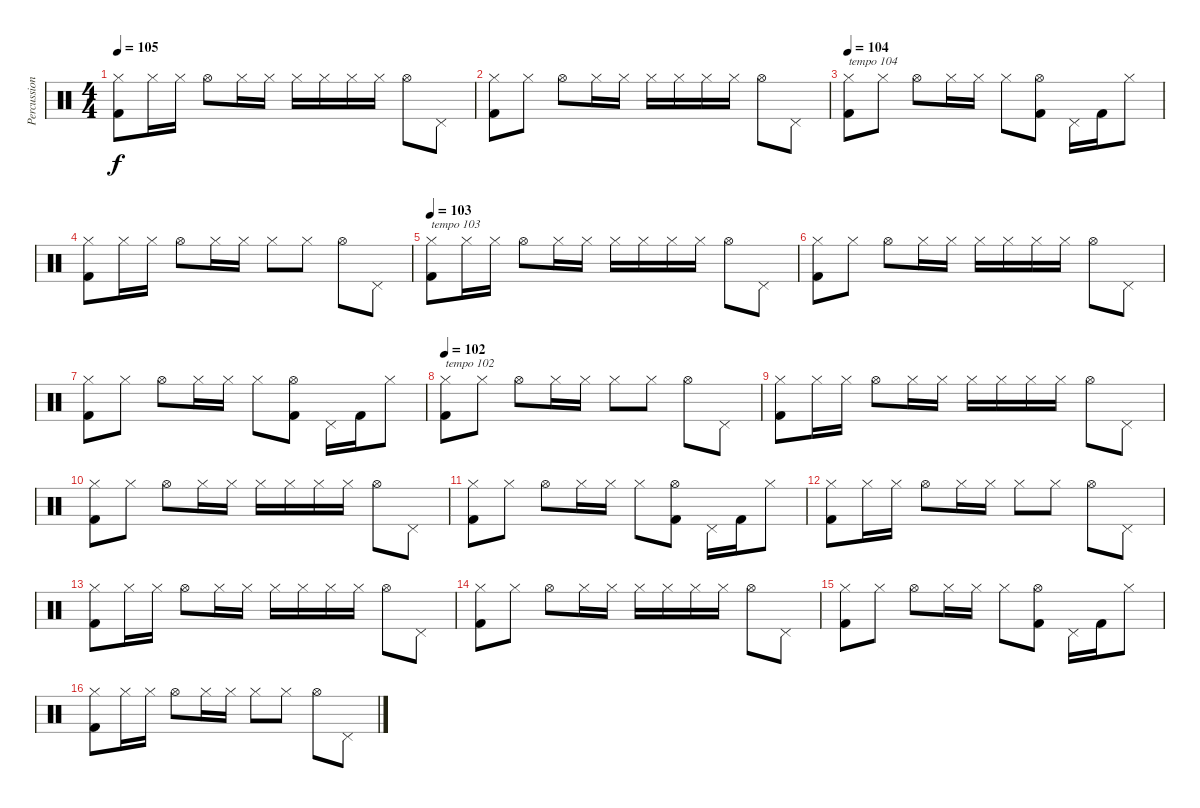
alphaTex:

\track ("Percussion" "Percussion") {instrument percussion}
\staff {score}
\articulation defaults
\ts (4 4)
\tempo 105
\clef neutral
\ks c
("Hi-Hat (closed)" "Kick (hit) 2").8{dy f} "Hi-Hat (closed)".16 "Hi-Hat (closed)".16 "Hi-Hat (open)".8 "Hi-Hat (closed)".16 "Hi-Hat (closed)".16 "Hi-Hat (closed)".16 "Hi-Hat (closed)".16 "Hi-Hat (closed)".16 "Hi-Hat (closed)".16 "Hi-Hat (open)".8 "Pedal Hi-Hat (hit)".8 |
("Hi-Hat (closed)" "Kick (hit) 2").8 "Hi-Hat (closed)".8 "Hi-Hat (open)".8 "Hi-Hat (closed)".16 "Hi-Hat (closed)".16 "Hi-Hat (closed)".16 "Hi-Hat (closed)".16 "Hi-Hat (closed)".16 "Hi-Hat (closed)".16 "Hi-Hat (open)".8 "Pedal Hi-Hat (hit)".8 |
\tempo 104
("Hi-Hat (closed)" "Kick (hit) 2").8{txt "tempo 104"} "Hi-Hat (closed)".8 "Hi-Hat (open)".8 "Hi-Hat (closed)".16 "Hi-Hat (closed)".16 "Hi-Hat (closed)".8 ("Hi-Hat (open)" "Kick (hit) 2").8 "Pedal Hi-Hat (hit)".16 "Kick (hit) 2".16 "Hi-Hat (closed)".8 |
("Hi-Hat (closed)" "Kick (hit) 2").8{volume 7} "Hi-Hat (closed)".16 "Hi-Hat (closed)".16 "Hi-Hat (open)".8 "Hi-Hat (closed)".16 "Hi-Hat (closed)".16 "Hi-Hat (closed)".8 "Hi-Hat (closed)".8 "Hi-Hat (open)".8 "Pedal Hi-Hat (hit)".8 |
\tempo 103
("Hi-Hat (closed)" "Kick (hit) 2").8{txt "tempo 103"} "Hi-Hat (closed)".16 "Hi-Hat (closed)".16 "Hi-Hat (open)".8 "Hi-Hat (closed)".16 "Hi-Hat (closed)".16 "Hi-Hat (closed)".16 "Hi-Hat (closed)".16 "Hi-Hat (closed)".16 "Hi-Hat (closed)".16 "Hi-Hat (open)".8 "Pedal Hi-Hat (hit)".8 |
("Hi-Hat (closed)" "Kick (hit) 2").8 "Hi-Hat (closed)".8 "Hi-Hat (open)".8 "Hi-Hat (closed)".16 "Hi-Hat (closed)".16 "Hi-Hat (closed)".16 "Hi-Hat (closed)".16 "Hi-Hat (closed)".16 "Hi-Hat (closed)".16 "Hi-Hat (open)".8 "Pedal Hi-Hat (hit)".8 |
("Hi-Hat (closed)" "Kick (hit) 2").8 "Hi-Hat (closed)".8 "Hi-Hat (open)".8 "Hi-Hat (closed)".16 "Hi-Hat (closed)".16 "Hi-Hat (closed)".8 ("Hi-Hat (open)" "Kick (hit) 2").8 "Pedal Hi-Hat (hit)".16 "Kick (hit) 2".16 "Hi-Hat (closed)".8 |
\tempo 102
("Hi-Hat (closed)" "Kick (hit) 2").8{txt "tempo 102" volume 7} "Hi-Hat (closed)".8 "Hi-Hat (open)".8 "Hi-Hat (closed)".16 "Hi-Hat (closed)".16 "Hi-Hat (closed)".8 "Hi-Hat (closed)".8 "Hi-Hat (open)".8 "Pedal Hi-Hat (hit)".8 |
("Hi-Hat (closed)" "Kick (hit) 2").8 "Hi-Hat (closed)".16 "Hi-Hat (closed)".16 "Hi-Hat (open)".8 "Hi-Hat (closed)".16 "Hi-Hat (closed)".16 "Hi-Hat (closed)".16 "Hi-Hat (closed)".16 "Hi-Hat (closed)".16 "Hi-Hat (closed)".16 "Hi-Hat (open)".8 "Pedal Hi-Hat (hit)".8 |
("Hi-Hat (closed)" "Kick (hit) 2").8 "Hi-Hat (closed)".8 "Hi-Hat (open)".8 "Hi-Hat (closed)".16 "Hi-Hat (closed)".16 "Hi-Hat (closed)".16 "Hi-Hat (closed)".16 "Hi-Hat (closed)".16 "Hi-Hat (closed)".16 "Hi-Hat (open)".8 "Pedal Hi-Hat (hit)".8 |
("Hi-Hat (closed)" "Kick (hit) 2").8 "Hi-Hat (closed)".8 "Hi-Hat (open)".8 "Hi-Hat (closed)".16 "Hi-Hat (closed)".16 "Hi-Hat (closed)".8 ("Hi-Hat (open)" "Kick (hit) 2").8 "Pedal Hi-Hat (hit)".16 "Kick (hit) 2".16 "Hi-Hat (closed)".8 |
("Hi-Hat (closed)" "Kick (hit) 2").8{volume 7} "Hi-Hat (closed)".16 "Hi-Hat (closed)".16 "Hi-Hat (open)".8 "Hi-Hat (closed)".16 "Hi-Hat (closed)".16 "Hi-Hat (closed)".8 "Hi-Hat (closed)".8 "Hi-Hat (open)".8 "Pedal Hi-Hat (hit)".8 |
("Hi-Hat (closed)" "Kick (hit) 2").8 "Hi-Hat (closed)".16 "Hi-Hat (closed)".16 "Hi-Hat (open)".8 "Hi-Hat (closed)".16 "Hi-Hat (closed)".16 "Hi-Hat (closed)".16 "Hi-Hat (closed)".16 "Hi-Hat (closed)".16 "Hi-Hat (closed)".16 "Hi-Hat (open)".8 "Pedal Hi-Hat (hit)".8 |
("Hi-Hat (closed)" "Kick (hit) 2").8 "Hi-Hat (closed)".8 "Hi-Hat (open)".8 "Hi-Hat (closed)".16 "Hi-Hat (closed)".16 "Hi-Hat (closed)".16 "Hi-Hat (closed)".16 "Hi-Hat (closed)".16 "Hi-Hat (closed)".16 "Hi-Hat (open)".8 "Pedal Hi-Hat (hit)".8 |
("Hi-Hat (closed)" "Kick (hit) 2").8 "Hi-Hat (closed)".8 "Hi-Hat (open)".8 "Hi-Hat (closed)".16 "Hi-Hat (closed)".16 "Hi-Hat (closed)".8 ("Hi-Hat (open)" "Kick (hit) 2").8 "Pedal Hi-Hat (hit)".16 "Kick (hit) 2".16 "Hi-Hat (closed)".8 |
("Hi-Hat (closed)" "Kick (hit) 2").8{volume 7} "Hi-Hat (closed)".16 "Hi-Hat (closed)".16 "Hi-Hat (open)".8 "Hi-Hat (closed)".16 "Hi-Hat (closed)".16 "Hi-Hat (closed)".8 "Hi-Hat (closed)".8 "Hi-Hat (open)".8 "Pedal Hi-Hat (hit)".8
